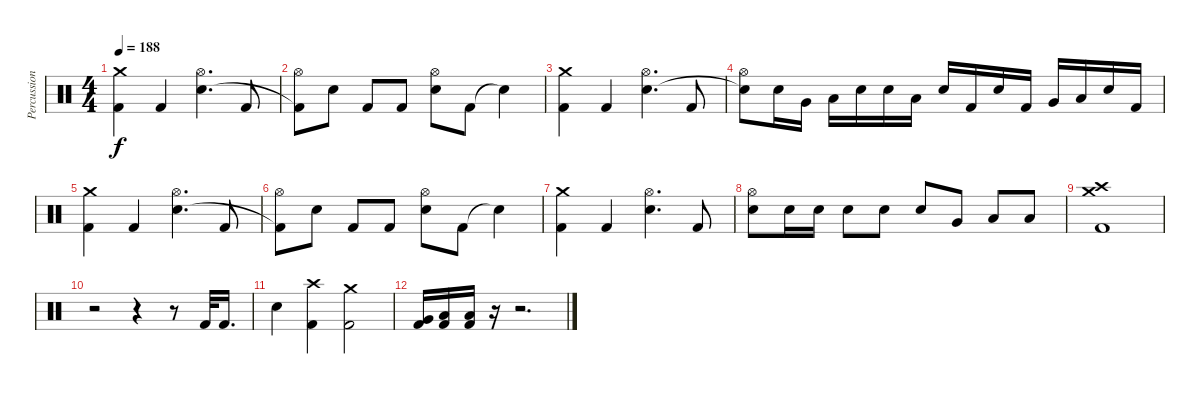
\track ("Percussion" "Percussion") {instrument percussion}
\staff {score}
\articulation defaults
\ts (4 4)
\tempo 188
\clef neutral
\ks c
("Crash medium (hit)" "Kick (hit) 2").4{dy f} "Kick (hit) 2".4 ("Hi-Hat (open)" "Electric Snare (hit)").4{d} "Kick (hit) 2".8 |
("Hi-Hat (open)" "Kick (hit) 2"{t}).8 "Electric Snare (hit)".8 "Kick (hit) 2".8 "Kick (hit) 2".8 ("Hi-Hat (open)" "Electric Snare (hit)").8 "Kick (hit) 2".8 "Snare (hit)"{t}.4 |
("Crash medium (hit)" "Kick (hit) 2").4 "Kick (hit) 2".4 ("Hi-Hat (open)" "Electric Snare (hit)").4{d} "Kick (hit) 2".8 |
("Hi-Hat (open)" "Snare (hit)"{t}).8 "Electric Snare (hit)".16 "Very Low Tom (hit)".16 "Low Floor Tom (hit)".16 "Electric Snare (hit)".16 "Electric Snare (hit)".16 "Low Floor Tom (hit)".16 "Electric Snare (hit)".16 "Kick (hit) 2".16 "Electric Snare (hit)".16 "Kick (hit) 2".16 "Very Low Tom (hit)".16 "Low Floor Tom (hit)".16 "Electric Snare (hit)".16 "Kick (hit) 2".16 |
("Crash medium (hit)" "Kick (hit) 2").4 "Kick (hit) 2".4 ("Hi-Hat (open)" "Electric Snare (hit)").4{d} "Kick (hit) 2".8 |
("Hi-Hat (open)" "Kick (hit) 2"{t}).8 "Electric Snare (hit)".8 "Kick (hit) 2".8 "Kick (hit) 2".8 ("Hi-Hat (open)" "Electric Snare (hit)").8 "Kick (hit) 2".8 "Snare (hit)"{t}.4 |
("Crash medium (hit)" "Kick (hit) 2").4 "Kick (hit) 2".4 ("Hi-Hat (open)" "Electric Snare (hit)").4{d} "Kick (hit) 2".8 |
("Hi-Hat (open)" "Electric Snare (hit)").8 "Electric Snare (hit)".16 "Electric Snare (hit)".16 "Electric Snare (hit)".8 "Electric Snare (hit)".8 "Electric Snare (hit)".8 "Very Low Tom (hit)".8 "Low Floor Tom (hit)".8 "Low Floor Tom (hit)".8 |
("Crash medium (hit)" "Crash high (hit)" "Kick (hit) 2").1 |
r.2 r.4 r.8 "Kick (hit) 2".32 "Kick (hit) 2".16{d} |
"Electric Snare (hit)".4 ("Crash high (hit)" "Kick (hit) 2").4 ("Crash medium (hit)" "Kick (hit) 2").2 |
("Very Low Tom (hit)" "Kick (hit) 2").16 ("Low Floor Tom (hit)" "Kick (hit) 2").16 ("Low Floor Tom (hit)" "Kick (hit) 2").16 r.16 r.2{d}
